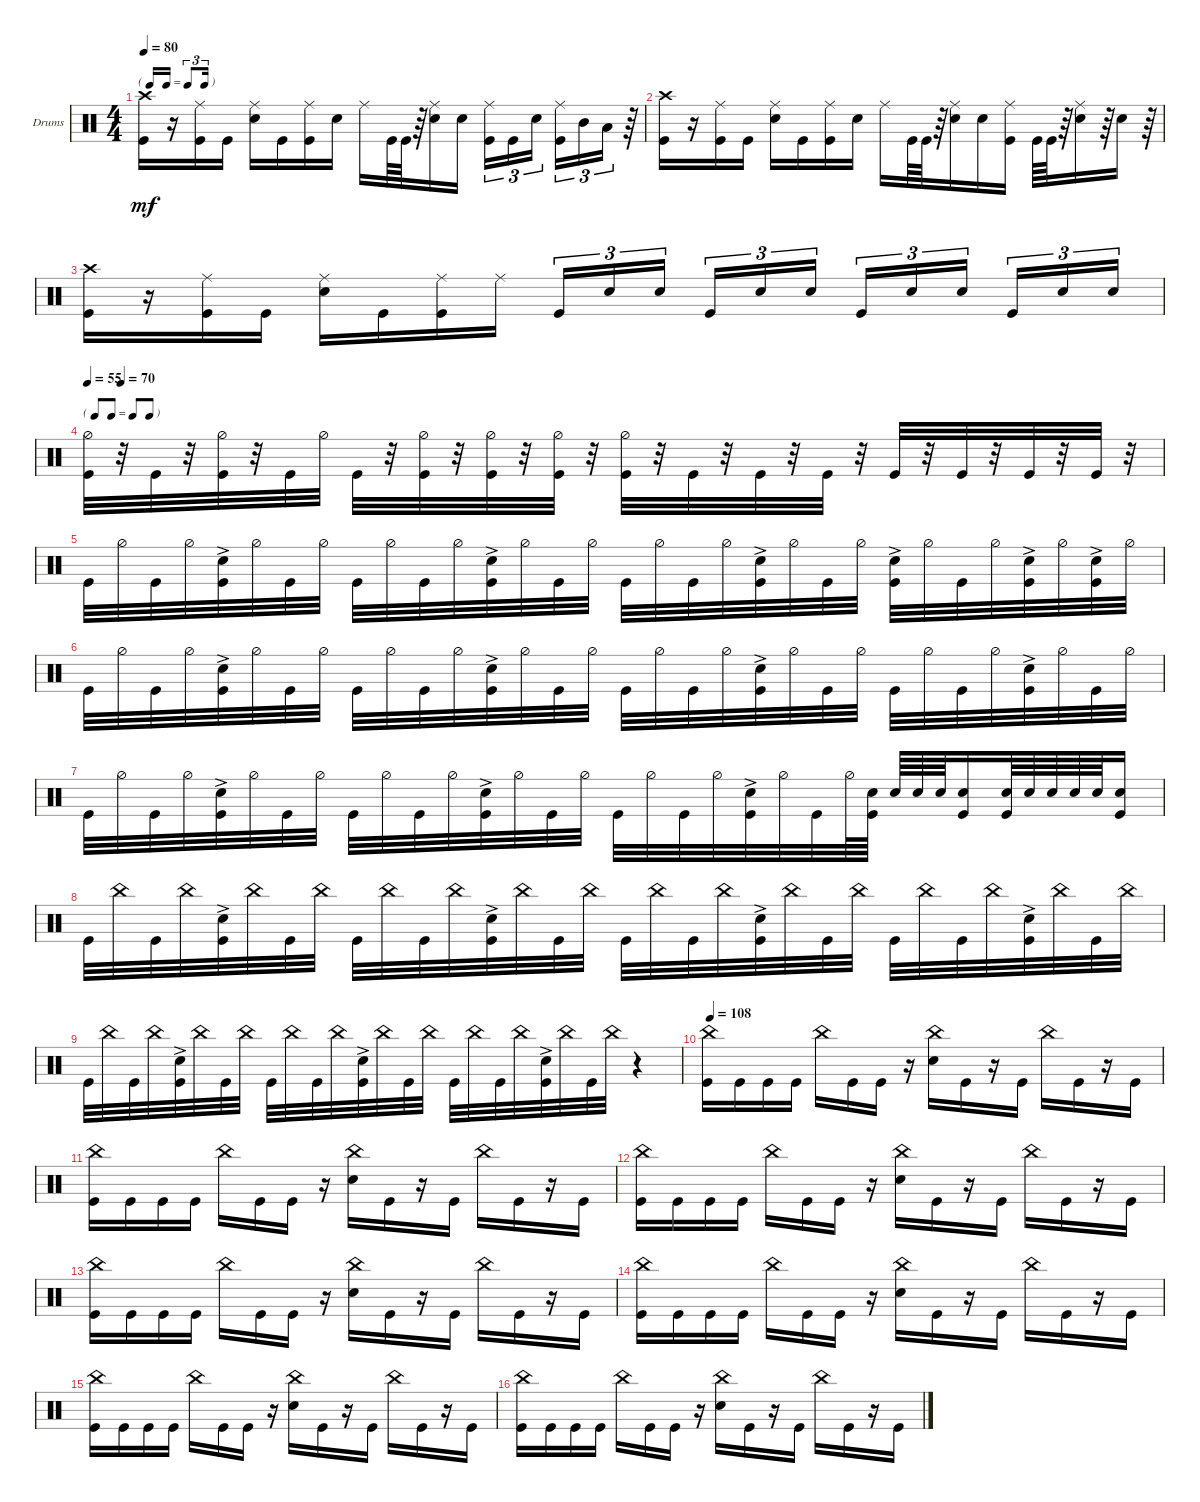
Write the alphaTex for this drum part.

\defaultSystemsLayout 4
\bracketExtendMode groupsimilarinstruments
\firstSystemTrackNameOrientation horizontal
\otherSystemsTrackNameOrientation horizontal
\track ("Drumkit" "Drums") {instrument percussion}
\staff {score}
\articulation defaults
\ts (4 4)
\tf triplet16th
\tempo 80
\clef neutral
\ks c
("Crash high (hit)" "Kick (hit)").16{dy mf} r.16 ("Ride (middle)" "Kick (hit)").16 "Kick (hit)".16 ("Ride (middle)" "Snare (hit) 2").16 "Kick (hit)".16 ("Ride (middle)" "Kick (hit)").16 "Snare (hit) 2".16 "Ride (middle)".16 "Kick (hit)".64 "Kick (hit)".64 r.64 ("Snare (hit) 2" "Ride (middle)").16 "Snare (hit) 2".16 ("Kick (hit)" "Ride (middle)").16{tu (3 2)} "Kick (hit)".16{tu (3 2)} "Snare (hit) 2".16{tu (3 2)} ("Kick (hit)" "Ride (middle)").16{tu (3 2)} "Mid Tom (hit)".16{tu (3 2)} "Low Tom (hit)".16{tu (3 2)} r.64 |
("Crash high (hit)" "Kick (hit)").16 r.16 ("Ride (middle)" "Kick (hit)").16 "Kick (hit)".16 ("Ride (middle)" "Snare (hit) 2").16 "Kick (hit)".16 ("Ride (middle)" "Kick (hit)").16 "Snare (hit) 2".16 "Ride (middle)".16 "Kick (hit)".64 "Kick (hit)".64 r.64 ("Snare (hit) 2" "Ride (middle)").16 "Snare (hit) 2".16 ("Kick (hit)" "Ride (middle)").16 "Kick (hit)".64 "Kick (hit)".64 r.64 ("Snare (hit) 2" "Ride (middle)").16 r.64 "Snare (hit) 2".16 r.64 |
("Crash high (hit)" "Kick (hit)").16 r.16 ("Ride (middle)" "Kick (hit)").16 "Kick (hit)".16 ("Ride (middle)" "Snare (hit) 2").16 "Kick (hit)".16 ("Ride (middle)" "Kick (hit)").16 "Ride (middle)".16 "Kick (hit)".16{tu (3 2)} "Snare (hit) 2".16{tu (3 2)} "Snare (hit) 2".16{tu (3 2)} "Kick (hit)".16{tu (3 2)} "Snare (hit) 2".16{tu (3 2)} "Snare (hit) 2".16{tu (3 2)} "Kick (hit)".16{tu (3 2)} "Snare (hit) 2".16{tu (3 2)} "Snare (hit) 2".16{tu (3 2)} "Kick (hit)".16{tu (3 2)} "Snare (hit) 2".16{tu (3 2)} "Snare (hit) 2".16{tu (3 2)} |
\tf none
\tempo 55
\tempo (70 0.03125)
("Hi-Hat (half)" "Kick (hit)").32 r.32 "Kick (hit)".32 r.32 ("Hi-Hat (half)" "Kick (hit)").32 r.32 "Kick (hit)".32 "Hi-Hat (half)".32 "Kick (hit)".32 r.32 ("Hi-Hat (half)" "Kick (hit)").32 r.32 ("Hi-Hat (half)" "Kick (hit)").32 r.32 ("Hi-Hat (half)" "Kick (hit)").32 r.32 ("Hi-Hat (half)" "Kick (hit)").32 r.32 "Kick (hit)".32 r.32 "Kick (hit)".32 r.32 "Kick (hit)".32 r.32 "Kick (hit)".32 r.32 "Kick (hit)".32 r.32 "Kick (hit)".32 r.32 "Kick (hit)".32 r.32 |
"Kick (hit)".32 "Hi-Hat (half)".32 "Kick (hit)".32 "Hi-Hat (half)".32 ("Kick (hit)" "Snare (hit) 2"{ac}).32 "Hi-Hat (half)".32 "Kick (hit)".32 "Hi-Hat (half)".32 "Kick (hit)".32 "Hi-Hat (half)".32 "Kick (hit)".32 "Hi-Hat (half)".32 ("Kick (hit)" "Snare (hit) 2"{ac}).32 "Hi-Hat (half)".32 "Kick (hit)".32 "Hi-Hat (half)".32 "Kick (hit)".32 "Hi-Hat (half)".32 "Kick (hit)".32 "Hi-Hat (half)".32 ("Kick (hit)" "Snare (hit) 2"{ac}).32 "Hi-Hat (half)".32 "Kick (hit)".32 "Hi-Hat (half)".32 ("Kick (hit)" "Snare (hit) 2"{ac}).32 "Hi-Hat (half)".32 "Kick (hit)".32 "Hi-Hat (half)".32 ("Kick (hit)" "Snare (hit) 2"{ac}).32 "Hi-Hat (half)".32 ("Kick (hit)" "Snare (hit) 2"{ac}).32 "Hi-Hat (half)".32 |
"Kick (hit)".32 "Hi-Hat (half)".32 "Kick (hit)".32 "Hi-Hat (half)".32 ("Kick (hit)" "Snare (hit) 2"{ac}).32 "Hi-Hat (half)".32 "Kick (hit)".32 "Hi-Hat (half)".32 "Kick (hit)".32 "Hi-Hat (half)".32 "Kick (hit)".32 "Hi-Hat (half)".32 ("Kick (hit)" "Snare (hit) 2"{ac}).32 "Hi-Hat (half)".32 "Kick (hit)".32 "Hi-Hat (half)".32 "Kick (hit)".32 "Hi-Hat (half)".32 "Kick (hit)".32 "Hi-Hat (half)".32 ("Kick (hit)" "Snare (hit) 2"{ac}).32 "Hi-Hat (half)".32 "Kick (hit)".32 "Hi-Hat (half)".32 "Kick (hit)".32 "Hi-Hat (half)".32 "Kick (hit)".32 "Hi-Hat (half)".32 ("Kick (hit)" "Snare (hit) 2"{ac}).32 "Hi-Hat (half)".32 "Kick (hit)".32 "Hi-Hat (half)".32 |
"Kick (hit)".32 "Hi-Hat (half)".32 "Kick (hit)".32 "Hi-Hat (half)".32 ("Kick (hit)" "Snare (hit) 2"{ac}).32 "Hi-Hat (half)".32 "Kick (hit)".32 "Hi-Hat (half)".32 "Kick (hit)".32 "Hi-Hat (half)".32 "Kick (hit)".32 "Hi-Hat (half)".32 ("Kick (hit)" "Snare (hit) 2"{ac}).32 "Hi-Hat (half)".32 "Kick (hit)".32 "Hi-Hat (half)".32 "Kick (hit)".32 "Hi-Hat (half)".32 "Kick (hit)".32 "Hi-Hat (half)".32 ("Kick (hit)" "Snare (hit) 2"{ac}).32 "Hi-Hat (half)".32 "Kick (hit)".32 "Hi-Hat (half)".64 ("Snare (hit) 2" "Kick (hit)").64 "Snare (hit) 2".64 "Snare (hit) 2".64 "Snare (hit) 2".64 ("Snare (hit) 2" "Kick (hit)").16 ("Snare (hit) 2" "Kick (hit)").64 "Snare (hit) 2".64 "Snare (hit) 2".64 "Snare (hit) 2".64 "Snare (hit) 2".64 ("Snare (hit) 2" "Kick (hit)").16 |
"Kick (hit)".32 "China (hit)".32 "Kick (hit)".32 "China (hit)".32 ("Kick (hit)" "Snare (hit) 2"{ac}).32 "China (hit)".32 "Kick (hit)".32 "China (hit)".32 "Kick (hit)".32 "China (hit)".32 "Kick (hit)".32 "China (hit)".32 ("Kick (hit)" "Snare (hit) 2"{ac}).32 "China (hit)".32 "Kick (hit)".32 "China (hit)".32 "Kick (hit)".32 "China (hit)".32 "Kick (hit)".32 "China (hit)".32 ("Kick (hit)" "Snare (hit) 2"{ac}).32 "China (hit)".32 "Kick (hit)".32 "China (hit)".32 "Kick (hit)".32 "China (hit)".32 "Kick (hit)".32 "China (hit)".32 ("Kick (hit)" "Snare (hit) 2"{ac}).32 "China (hit)".32 "Kick (hit)".32 "China (hit)".32 |
"Kick (hit)".32 "China (hit)".32 "Kick (hit)".32 "China (hit)".32 ("Kick (hit)" "Snare (hit) 2"{ac}).32 "China (hit)".32 "Kick (hit)".32 "China (hit)".32 "Kick (hit)".32 "China (hit)".32 "Kick (hit)".32 "China (hit)".32 ("Kick (hit)" "Snare (hit) 2"{ac}).32 "China (hit)".32 "Kick (hit)".32 "China (hit)".32 "Kick (hit)".32 "China (hit)".32 "Kick (hit)".32 "China (hit)".32 ("Kick (hit)" "Snare (hit) 2"{ac}).32 "China (hit)".32 "Kick (hit)".32 "China (hit)".32 r.4 |
\tempo 108
("Kick (hit)" "China (hit)").16 "Kick (hit)".16 "Kick (hit)".16 "Kick (hit)".16 "China (hit)".16 "Kick (hit)".16 "Kick (hit)".16 r.16 ("China (hit)" "Snare (hit) 2").16 "Kick (hit)".16 r.16 "Kick (hit)".16 "China (hit)".16 "Kick (hit)".16 r.16 "Kick (hit)".16 |
("Kick (hit)" "China (hit)").16 "Kick (hit)".16 "Kick (hit)".16 "Kick (hit)".16 "China (hit)".16 "Kick (hit)".16 "Kick (hit)".16 r.16 ("China (hit)" "Snare (hit) 2").16 "Kick (hit)".16 r.16 "Kick (hit)".16 "China (hit)".16 "Kick (hit)".16 r.16 "Kick (hit)".16 |
("Kick (hit)" "China (hit)").16 "Kick (hit)".16 "Kick (hit)".16 "Kick (hit)".16 "China (hit)".16 "Kick (hit)".16 "Kick (hit)".16 r.16 ("China (hit)" "Snare (hit) 2").16 "Kick (hit)".16 r.16 "Kick (hit)".16 "China (hit)".16 "Kick (hit)".16 r.16 "Kick (hit)".16 |
("Kick (hit)" "China (hit)").16 "Kick (hit)".16 "Kick (hit)".16 "Kick (hit)".16 "China (hit)".16 "Kick (hit)".16 "Kick (hit)".16 r.16 ("China (hit)" "Snare (hit) 2").16 "Kick (hit)".16 r.16 "Kick (hit)".16 "China (hit)".16 "Kick (hit)".16 r.16 "Kick (hit)".16 |
("Kick (hit)" "China (hit)").16 "Kick (hit)".16 "Kick (hit)".16 "Kick (hit)".16 "China (hit)".16 "Kick (hit)".16 "Kick (hit)".16 r.16 ("China (hit)" "Snare (hit) 2").16 "Kick (hit)".16 r.16 "Kick (hit)".16 "China (hit)".16 "Kick (hit)".16 r.16 "Kick (hit)".16 |
("Kick (hit)" "China (hit)").16 "Kick (hit)".16 "Kick (hit)".16 "Kick (hit)".16 "China (hit)".16 "Kick (hit)".16 "Kick (hit)".16 r.16 ("China (hit)" "Snare (hit) 2").16 "Kick (hit)".16 r.16 "Kick (hit)".16 "China (hit)".16 "Kick (hit)".16 r.16 "Kick (hit)".16 |
("Kick (hit)" "China (hit)").16 "Kick (hit)".16 "Kick (hit)".16 "Kick (hit)".16 "China (hit)".16 "Kick (hit)".16 "Kick (hit)".16 r.16 ("China (hit)" "Snare (hit) 2").16 "Kick (hit)".16 r.16 "Kick (hit)".16 "China (hit)".16 "Kick (hit)".16 r.16 "Kick (hit)".16
